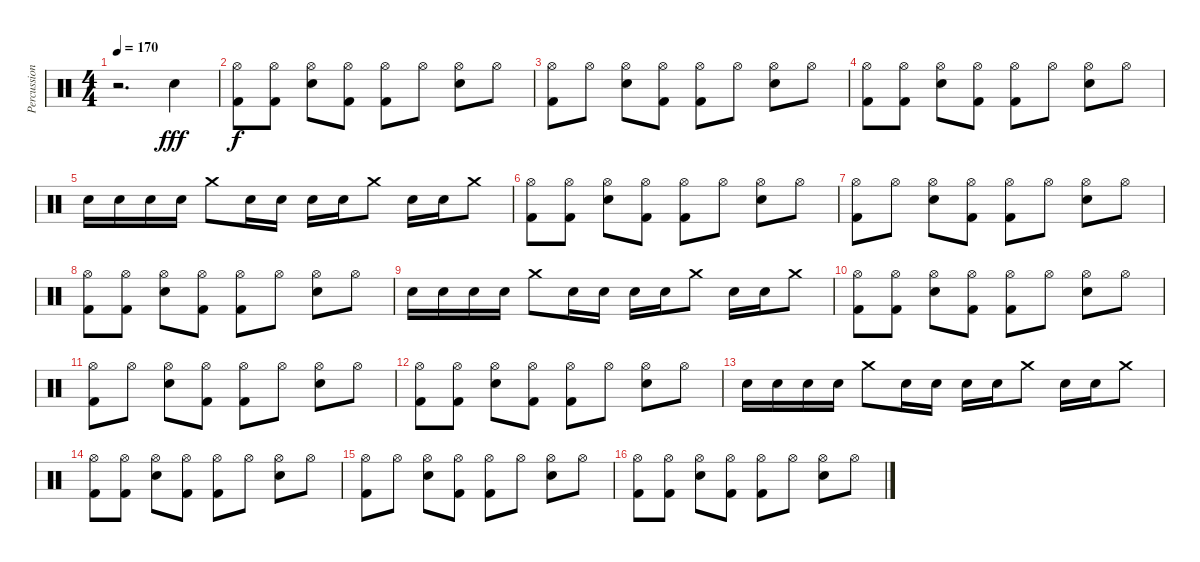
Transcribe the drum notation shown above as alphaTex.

\track ("Percussion" "Percussion") {instrument percussion}
\staff {score}
\articulation defaults
\ts (4 4)
\tempo 170
\clef neutral
\ks c
r.2{d dy f} "Snare (hit) 2".4{dy fff} |
("Hi-Hat (open)" "Kick (hit) 2").8{dy f} ("Hi-Hat (open)" "Kick (hit) 2").8 ("Hi-Hat (open)" "Snare (hit) 2").8 ("Hi-Hat (open)" "Kick (hit) 2").8 ("Hi-Hat (open)" "Kick (hit) 2").8 "Hi-Hat (open)".8 ("Hi-Hat (open)" "Snare (hit) 2").8 "Hi-Hat (open)".8 |
("Hi-Hat (open)" "Kick (hit) 2").8 "Hi-Hat (open)".8 ("Hi-Hat (open)" "Snare (hit) 2").8 ("Hi-Hat (open)" "Kick (hit) 2").8 ("Hi-Hat (open)" "Kick (hit) 2").8 "Hi-Hat (open)".8 ("Hi-Hat (open)" "Snare (hit) 2").8 "Hi-Hat (open)".8 |
("Hi-Hat (open)" "Kick (hit) 2").8 ("Hi-Hat (open)" "Kick (hit) 2").8 ("Hi-Hat (open)" "Snare (hit) 2").8 ("Hi-Hat (open)" "Kick (hit) 2").8 ("Hi-Hat (open)" "Kick (hit) 2").8 "Hi-Hat (open)".8 ("Hi-Hat (open)" "Snare (hit) 2").8 "Hi-Hat (open)".8 |
"Snare (hit) 2".16 "Snare (hit) 2".16 "Snare (hit) 2".16 "Snare (hit) 2".16 "Crash medium (hit)".8 "Snare (hit) 2".16 "Snare (hit) 2".16 "Snare (hit) 2".16 "Snare (hit) 2".16 "Crash medium (hit)".8 "Snare (hit) 2".16 "Snare (hit) 2".16 "Crash medium (hit)".8 |
("Hi-Hat (open)" "Kick (hit) 2").8 ("Hi-Hat (open)" "Kick (hit) 2").8 ("Hi-Hat (open)" "Snare (hit) 2").8 ("Hi-Hat (open)" "Kick (hit) 2").8 ("Hi-Hat (open)" "Kick (hit) 2").8 "Hi-Hat (open)".8 ("Hi-Hat (open)" "Snare (hit) 2").8 "Hi-Hat (open)".8 |
("Hi-Hat (open)" "Kick (hit) 2").8 "Hi-Hat (open)".8 ("Hi-Hat (open)" "Snare (hit) 2").8 ("Hi-Hat (open)" "Kick (hit) 2").8 ("Hi-Hat (open)" "Kick (hit) 2").8 "Hi-Hat (open)".8 ("Hi-Hat (open)" "Snare (hit) 2").8 "Hi-Hat (open)".8 |
("Hi-Hat (open)" "Kick (hit) 2").8 ("Hi-Hat (open)" "Kick (hit) 2").8 ("Hi-Hat (open)" "Snare (hit) 2").8 ("Hi-Hat (open)" "Kick (hit) 2").8 ("Hi-Hat (open)" "Kick (hit) 2").8 "Hi-Hat (open)".8 ("Hi-Hat (open)" "Snare (hit) 2").8 "Hi-Hat (open)".8 |
"Snare (hit) 2".16 "Snare (hit) 2".16 "Snare (hit) 2".16 "Snare (hit) 2".16 "Crash medium (hit)".8 "Snare (hit) 2".16 "Snare (hit) 2".16 "Snare (hit) 2".16 "Snare (hit) 2".16 "Crash medium (hit)".8 "Snare (hit) 2".16 "Snare (hit) 2".16 "Crash medium (hit)".8 |
("Hi-Hat (open)" "Kick (hit) 2").8 ("Hi-Hat (open)" "Kick (hit) 2").8 ("Hi-Hat (open)" "Snare (hit) 2").8 ("Hi-Hat (open)" "Kick (hit) 2").8 ("Hi-Hat (open)" "Kick (hit) 2").8 "Hi-Hat (open)".8 ("Hi-Hat (open)" "Snare (hit) 2").8 "Hi-Hat (open)".8 |
("Hi-Hat (open)" "Kick (hit) 2").8 "Hi-Hat (open)".8 ("Hi-Hat (open)" "Snare (hit) 2").8 ("Hi-Hat (open)" "Kick (hit) 2").8 ("Hi-Hat (open)" "Kick (hit) 2").8 "Hi-Hat (open)".8 ("Hi-Hat (open)" "Snare (hit) 2").8 "Hi-Hat (open)".8 |
("Hi-Hat (open)" "Kick (hit) 2").8 ("Hi-Hat (open)" "Kick (hit) 2").8 ("Hi-Hat (open)" "Snare (hit) 2").8 ("Hi-Hat (open)" "Kick (hit) 2").8 ("Hi-Hat (open)" "Kick (hit) 2").8 "Hi-Hat (open)".8 ("Hi-Hat (open)" "Snare (hit) 2").8 "Hi-Hat (open)".8 |
"Snare (hit) 2".16 "Snare (hit) 2".16 "Snare (hit) 2".16 "Snare (hit) 2".16 "Crash medium (hit)".8 "Snare (hit) 2".16 "Snare (hit) 2".16 "Snare (hit) 2".16 "Snare (hit) 2".16 "Crash medium (hit)".8 "Snare (hit) 2".16 "Snare (hit) 2".16 "Crash medium (hit)".8 |
("Hi-Hat (open)" "Kick (hit) 2").8 ("Hi-Hat (open)" "Kick (hit) 2").8 ("Hi-Hat (open)" "Snare (hit) 2").8 ("Hi-Hat (open)" "Kick (hit) 2").8 ("Hi-Hat (open)" "Kick (hit) 2").8 "Hi-Hat (open)".8 ("Hi-Hat (open)" "Snare (hit) 2").8 "Hi-Hat (open)".8 |
("Hi-Hat (open)" "Kick (hit) 2").8 "Hi-Hat (open)".8 ("Hi-Hat (open)" "Snare (hit) 2").8 ("Hi-Hat (open)" "Kick (hit) 2").8 ("Hi-Hat (open)" "Kick (hit) 2").8 "Hi-Hat (open)".8 ("Hi-Hat (open)" "Snare (hit) 2").8 "Hi-Hat (open)".8 |
("Hi-Hat (open)" "Kick (hit) 2").8 ("Hi-Hat (open)" "Kick (hit) 2").8 ("Hi-Hat (open)" "Snare (hit) 2").8 ("Hi-Hat (open)" "Kick (hit) 2").8 ("Hi-Hat (open)" "Kick (hit) 2").8 "Hi-Hat (open)".8 ("Hi-Hat (open)" "Snare (hit) 2").8 "Hi-Hat (open)".8
